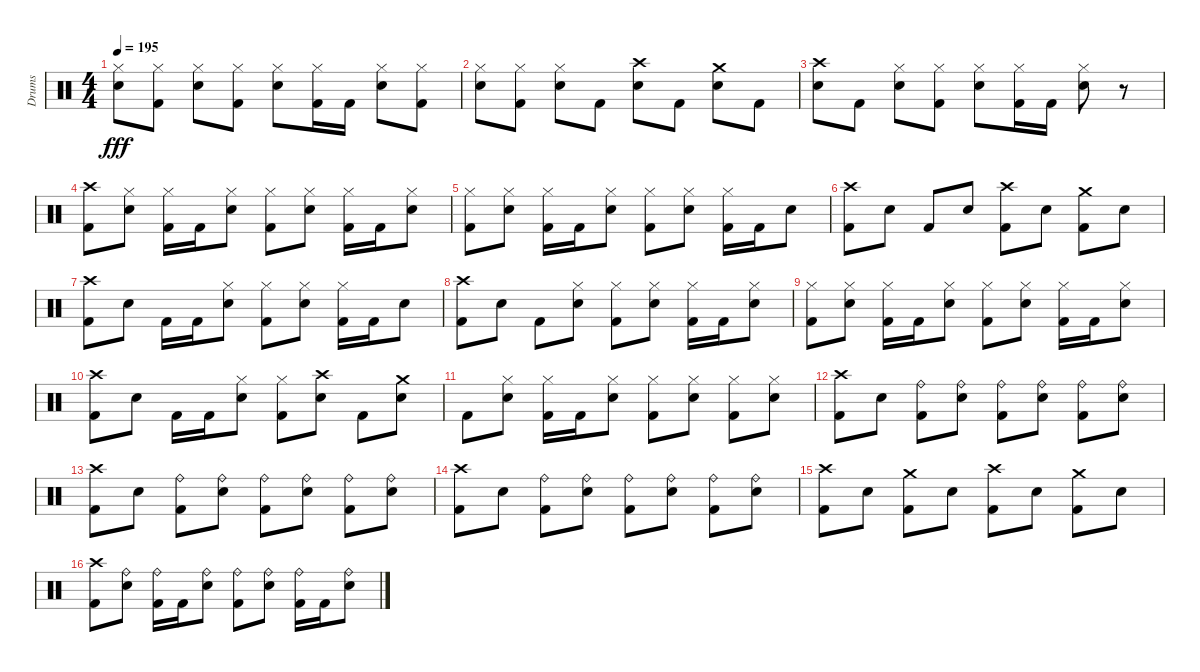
\track ("Drums" "Drums") {instrument percussion}
\staff {score}
\articulation defaults
\ts (4 4)
\tempo 195
\clef neutral
\ks c
("Metronome (bell)" "Hi-Hat (closed)").8{dy fff} ("Kick (hit) 2" "Hi-Hat (closed)").8 ("Metronome (bell)" "Hi-Hat (closed)").8 ("Kick (hit) 2" "Hi-Hat (closed)").8 ("Metronome (bell)" "Hi-Hat (closed)").8 ("Kick (hit) 2" "Hi-Hat (closed)").16 "Kick (hit) 2".16 ("Metronome (bell)" "Hi-Hat (closed)").8 ("Kick (hit) 2" "Hi-Hat (closed)").8 |
("Metronome (bell)" "Hi-Hat (closed)").8 ("Kick (hit) 2" "Hi-Hat (closed)").8 ("Metronome (bell)" "Hi-Hat (closed)").8 "Kick (hit) 2".8 ("Metronome (bell)" "Crash high (hit)").8 "Kick (hit) 2".8 ("Metronome (bell)" "Crash medium (hit)").8 "Kick (hit) 2".8 |
("Metronome (bell)" "Crash high (hit)").8 "Kick (hit) 2".8 ("Metronome (bell)" "Hi-Hat (closed)").8 ("Kick (hit) 2" "Hi-Hat (closed)").8 ("Metronome (bell)" "Hi-Hat (closed)").8 ("Kick (hit) 2" "Hi-Hat (closed)").16 "Kick (hit) 2".16 ("Metronome (bell)" "Hi-Hat (closed)").8 r.8 |
("Kick (hit) 2" "Crash high (hit)").8 ("Metronome (bell)" "Hi-Hat (closed)").8 ("Kick (hit) 2" "Hi-Hat (closed)").16 "Kick (hit) 2".16 ("Metronome (bell)" "Hi-Hat (closed)").8 ("Kick (hit) 2" "Hi-Hat (closed)").8 ("Metronome (bell)" "Hi-Hat (closed)").8 ("Kick (hit) 2" "Hi-Hat (closed)").16 "Kick (hit) 2".16 ("Metronome (bell)" "Hi-Hat (closed)").8 |
("Kick (hit) 2" "Hi-Hat (closed)").8 ("Metronome (bell)" "Hi-Hat (closed)").8 ("Kick (hit) 2" "Hi-Hat (closed)").16 "Kick (hit) 2".16 ("Metronome (bell)" "Hi-Hat (closed)").8 ("Kick (hit) 2" "Hi-Hat (closed)").8 ("Metronome (bell)" "Hi-Hat (closed)").8 ("Kick (hit) 2" "Hi-Hat (closed)").16 "Kick (hit) 2".16 "Metronome (bell)".8 |
("Kick (hit) 2" "Crash high (hit)").8 "Metronome (bell)".8 "Kick (hit) 2".8 "Metronome (bell)".8 ("Kick (hit) 2" "Crash high (hit)").8 "Metronome (bell)".8 ("Kick (hit) 2" "Crash medium (hit)").8 "Metronome (bell)".8 |
("Kick (hit) 2" "Crash high (hit)").8 "Metronome (bell)".8 "Kick (hit) 2".16 "Kick (hit) 2".16 ("Metronome (bell)" "Hi-Hat (closed)").8 ("Kick (hit) 2" "Hi-Hat (closed)").8 ("Metronome (bell)" "Hi-Hat (closed)").8 ("Kick (hit) 2" "Hi-Hat (closed)").16 "Kick (hit) 2".16 "Metronome (bell)".8 |
("Kick (hit) 2" "Crash high (hit)").8 "Metronome (bell)".8 "Kick (hit) 2".8 ("Metronome (bell)" "Hi-Hat (closed)").8 ("Kick (hit) 2" "Hi-Hat (closed)").8 ("Metronome (bell)" "Hi-Hat (closed)").8 ("Kick (hit) 2" "Hi-Hat (closed)").16 "Kick (hit) 2".16 ("Metronome (bell)" "Hi-Hat (closed)").8 |
("Kick (hit) 2" "Hi-Hat (closed)").8 ("Metronome (bell)" "Hi-Hat (closed)").8 ("Kick (hit) 2" "Hi-Hat (closed)").16 "Kick (hit) 2".16 ("Metronome (bell)" "Hi-Hat (closed)").8 ("Kick (hit) 2" "Hi-Hat (closed)").8 ("Metronome (bell)" "Hi-Hat (closed)").8 ("Kick (hit) 2" "Hi-Hat (closed)").16 "Kick (hit) 2".16 ("Metronome (bell)" "Hi-Hat (closed)").8 |
("Kick (hit) 2" "Crash high (hit)").8 "Metronome (bell)".8 "Kick (hit) 2".16 "Kick (hit) 2".16 ("Metronome (bell)" "Hi-Hat (closed)").8 ("Kick (hit) 2" "Hi-Hat (closed)").8 ("Metronome (bell)" "Crash high (hit)").8 "Kick (hit) 2".8 ("Metronome (bell)" "Crash medium (hit)").8 |
"Kick (hit) 2".8 ("Metronome (bell)" "Hi-Hat (closed)").8 ("Kick (hit) 2" "Hi-Hat (closed)").16 "Kick (hit) 2".16 ("Metronome (bell)" "Hi-Hat (closed)").8 ("Kick (hit) 2" "Hi-Hat (closed)").8 ("Metronome (bell)" "Hi-Hat (closed)").8 ("Kick (hit) 2" "Hi-Hat (closed)").8 ("Metronome (bell)" "Hi-Hat (closed)").8 |
("Kick (hit) 2" "Crash high (hit)").8 "Metronome (bell)".8 ("Kick (hit) 2" "Ride (bell)").8 ("Metronome (bell)" "Ride (bell)").8 ("Kick (hit) 2" "Ride (bell)").8 ("Metronome (bell)" "Ride (bell)").8 ("Kick (hit) 2" "Ride (bell)").8 ("Metronome (bell)" "Ride (bell)").8 |
("Kick (hit) 2" "Crash high (hit)").8 "Metronome (bell)".8 ("Kick (hit) 2" "Ride (bell)").8 ("Metronome (bell)" "Ride (bell)").8 ("Kick (hit) 2" "Ride (bell)").8 ("Metronome (bell)" "Ride (bell)").8 ("Kick (hit) 2" "Ride (bell)").8 ("Metronome (bell)" "Ride (bell)").8 |
("Kick (hit) 2" "Crash high (hit)").8 "Metronome (bell)".8 ("Kick (hit) 2" "Ride (bell)").8 ("Metronome (bell)" "Ride (bell)").8 ("Kick (hit) 2" "Ride (bell)").8 ("Metronome (bell)" "Ride (bell)").8 ("Kick (hit) 2" "Ride (bell)").8 ("Metronome (bell)" "Ride (bell)").8 |
("Kick (hit) 2" "Crash high (hit)").8 "Metronome (bell)".8 ("Kick (hit) 2" "Crash medium (hit)").8 "Metronome (bell)".8 ("Kick (hit) 2" "Crash high (hit)").8 "Metronome (bell)".8 ("Kick (hit) 2" "Crash medium (hit)").8 "Metronome (bell)".8 |
("Kick (hit) 2" "Crash high (hit)").8 ("Metronome (bell)" "Ride (bell)").8 ("Kick (hit) 2" "Ride (bell)").16 "Kick (hit) 2".16 ("Metronome (bell)" "Ride (bell)").8 ("Kick (hit) 2" "Ride (bell)").8 ("Metronome (bell)" "Ride (bell)").8 ("Kick (hit) 2" "Ride (bell)").16 "Kick (hit) 2".16 ("Metronome (bell)" "Ride (bell)").8
